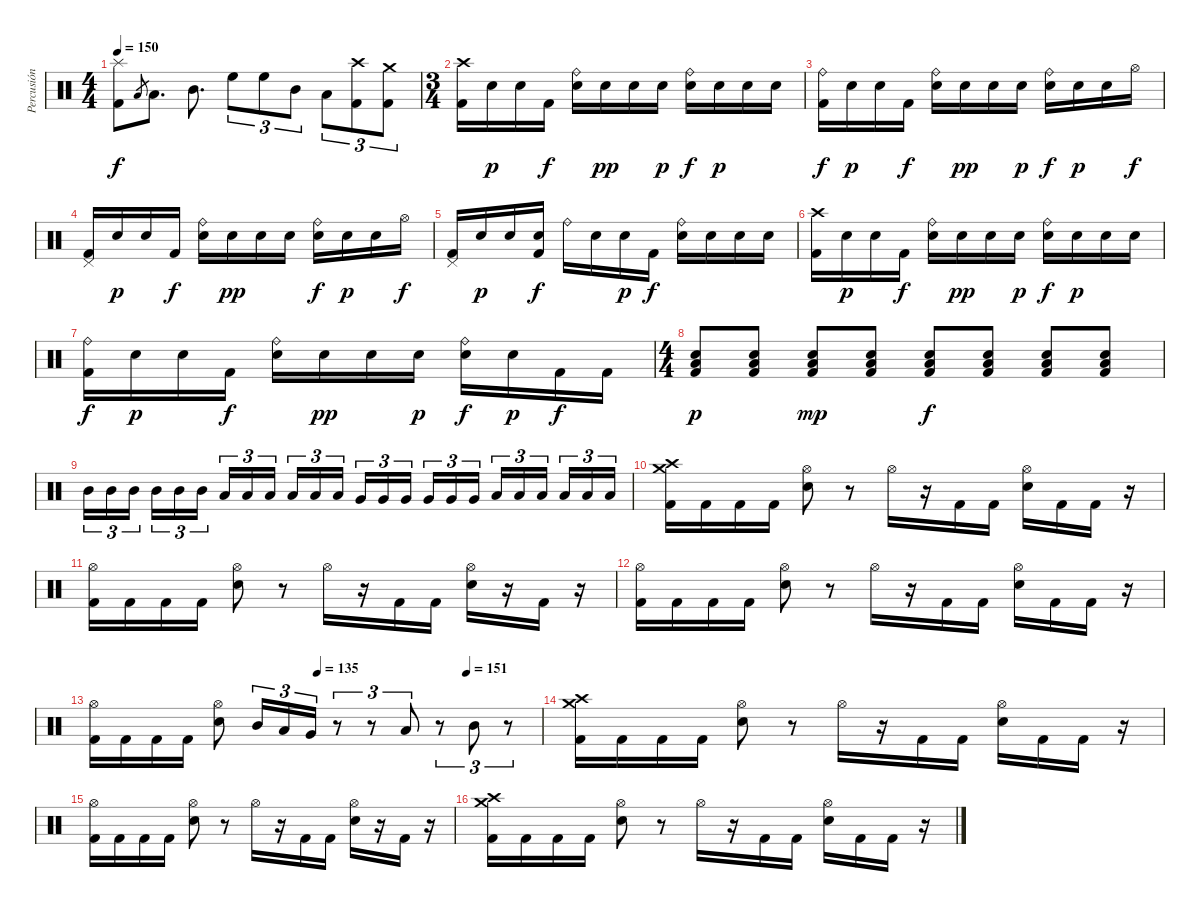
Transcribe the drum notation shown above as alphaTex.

\track ("Percusión" "Percusión") {instrument percussion}
\staff {score}
\articulation defaults
\ts (4 4)
\tempo 150
\clef neutral
\ks c
("Splash (hit)" "Kick (hit) 2").8{dy f} "Low Tom (hit)".8{gr} "Low Tom (hit)".8{d} "Mid Tom (hit)".8{d} "High Floor Tom (hit)".8{tu (3 2)} "High Floor Tom (hit)".8{tu (3 2)} "Mid Tom (hit)".8{tu (3 2)} "Low Tom (hit)".8{tu (3 2)} ("Crash high (hit)" "Kick (hit) 2").8{tu (3 2)} ("Crash medium (hit)" "Kick (hit) 2").8{tu (3 2)} |
\ts (3 4)
("Crash high (hit)" "Kick (hit) 2").16 "Electric Snare (hit)".16{dy p} "Electric Snare (hit)".16 "Kick (hit) 2".16{dy f} ("Ride (bell)" "Electric Snare (hit)").16 "Electric Snare (hit)".16{dy pp} "Electric Snare (hit)".16 "Electric Snare (hit)".16{dy p} ("Ride (bell)" "Electric Snare (hit)").16{dy f} "Electric Snare (hit)".16{dy p} "Electric Snare (hit)".16 "Electric Snare (hit)".16 |
("Ride (bell)" "Kick (hit) 2").16{dy f} "Electric Snare (hit)".16{dy p} "Electric Snare (hit)".16 "Kick (hit) 2".16{dy f} ("Ride (bell)" "Electric Snare (hit)").16 "Electric Snare (hit)".16{dy pp} "Electric Snare (hit)".16 "Electric Snare (hit)".16{dy p} ("Ride (bell)" "Electric Snare (hit)").16{dy f} "Electric Snare (hit)".16{dy p} "Electric Snare (hit)".16 "Hi-Hat (open)".16{dy f} |
("Pedal Hi-Hat (hit)" "Kick (hit) 2").16 "Electric Snare (hit)".16{dy p} "Electric Snare (hit)".16 "Kick (hit) 2".16{dy f} ("Ride (bell)" "Electric Snare (hit)").16 "Electric Snare (hit)".16{dy pp} "Electric Snare (hit)".16 "Electric Snare (hit)".16 ("Ride (bell)" "Electric Snare (hit)").16{dy f} "Electric Snare (hit)".16{dy p} "Electric Snare (hit)".16 "Hi-Hat (open)".16{dy f} |
("Pedal Hi-Hat (hit)" "Kick (hit) 2").16 "Electric Snare (hit)".16{dy p} "Electric Snare (hit)".16 ("Electric Snare (hit)" "Kick (hit) 2").16{dy f} "Ride (bell)".16 "Electric Snare (hit)".16 "Electric Snare (hit)".16{dy p} "Kick (hit) 2".16{dy f} ("Ride (bell)" "Electric Snare (hit)").16 "Electric Snare (hit)".16 "Electric Snare (hit)".16 "Electric Snare (hit)".16 |
("Crash high (hit)" "Kick (hit) 2").16 "Electric Snare (hit)".16{dy p} "Electric Snare (hit)".16 "Kick (hit) 2".16{dy f} ("Ride (bell)" "Electric Snare (hit)").16 "Electric Snare (hit)".16{dy pp} "Electric Snare (hit)".16 "Electric Snare (hit)".16{dy p} ("Ride (bell)" "Electric Snare (hit)").16{dy f} "Electric Snare (hit)".16{dy p} "Electric Snare (hit)".16 "Electric Snare (hit)".16 |
("Ride (bell)" "Kick (hit) 2").16{dy f} "Electric Snare (hit)".16{dy p} "Electric Snare (hit)".16 "Kick (hit) 2".16{dy f} ("Ride (bell)" "Electric Snare (hit)").16 "Electric Snare (hit)".16{dy pp} "Electric Snare (hit)".16 "Electric Snare (hit)".16{dy p} ("Ride (bell)" "Electric Snare (hit)").16{dy f} "Electric Snare (hit)".16{dy p} "Kick (hit) 2".16{dy f} "Kick (hit) 2".16 |
\ts (4 4)
("Electric Snare (hit)" "Low Tom (hit)" "Kick (hit) 2").8{dy p} ("Electric Snare (hit)" "Low Tom (hit)" "Kick (hit) 2").8 ("Electric Snare (hit)" "Low Tom (hit)" "Kick (hit) 2").8{dy mp} ("Electric Snare (hit)" "Low Tom (hit)" "Kick (hit) 2").8 ("Electric Snare (hit)" "Low Tom (hit)" "Kick (hit) 2").8{dy f} ("Electric Snare (hit)" "Low Tom (hit)" "Kick (hit) 2").8 ("Electric Snare (hit)" "Low Tom (hit)" "Kick (hit) 2").8 ("Electric Snare (hit)" "Low Tom (hit)" "Kick (hit) 2").8 |
"Mid Tom (hit)".16{tu (3 2)} "Mid Tom (hit)".16{tu (3 2)} "Mid Tom (hit)".16{tu (3 2) beam splitsecondary} "Mid Tom (hit)".16{tu (3 2)} "Mid Tom (hit)".16{tu (3 2)} "Mid Tom (hit)".16{tu (3 2)} "Low Tom (hit)".16{tu (3 2)} "Low Tom (hit)".16{tu (3 2)} "Low Tom (hit)".16{tu (3 2) beam splitsecondary} "Low Tom (hit)".16{tu (3 2)} "Low Tom (hit)".16{tu (3 2)} "Low Tom (hit)".16{tu (3 2)} "Very Low Tom (hit)".16{tu (3 2)} "Very Low Tom (hit)".16{tu (3 2)} "Very Low Tom (hit)".16{tu (3 2) beam splitsecondary} "Very Low Tom (hit)".16{tu (3 2)} "Very Low Tom (hit)".16{tu (3 2)} "Very Low Tom (hit)".16{tu (3 2)} "Low Floor Tom (hit)".16{tu (3 2)} "Low Floor Tom (hit)".16{tu (3 2)} "Low Floor Tom (hit)".16{tu (3 2) beam splitsecondary} "Low Floor Tom (hit)".16{tu (3 2)} "Low Floor Tom (hit)".16{tu (3 2)} "Low Floor Tom (hit)".16{tu (3 2)} |
("Crash high (hit)" "Crash medium (hit)" "Kick (hit) 2").16 "Kick (hit) 2".16 "Kick (hit) 2".16 "Kick (hit) 2".16 ("Hi-Hat (open)" "Electric Snare (hit)").8 r.8 "Hi-Hat (open)".16 r.16 "Kick (hit) 2".16 "Kick (hit) 2".16 ("Hi-Hat (open)" "Electric Snare (hit)").16 "Kick (hit) 2".16 "Kick (hit) 2".16 r.16 |
("Hi-Hat (open)" "Kick (hit) 2").16 "Kick (hit) 2".16 "Kick (hit) 2".16 "Kick (hit) 2".16 ("Hi-Hat (open)" "Electric Snare (hit)").8 r.8 "Hi-Hat (open)".16 r.16 "Kick (hit) 2".16 "Kick (hit) 2".16 ("Hi-Hat (open)" "Electric Snare (hit)").16 r.16 "Kick (hit) 2".16 r.16 |
("Hi-Hat (open)" "Kick (hit) 2").16 "Kick (hit) 2".16 "Kick (hit) 2".16 "Kick (hit) 2".16 ("Hi-Hat (open)" "Electric Snare (hit)").8 r.8 "Hi-Hat (open)".16 r.16 "Kick (hit) 2".16 "Kick (hit) 2".16 ("Hi-Hat (open)" "Electric Snare (hit)").16 "Kick (hit) 2".16 "Kick (hit) 2".16 r.16 |
\tempo (135 0.5)
\tempo (151 0.8333333333333334)
("Hi-Hat (open)" "Kick (hit) 2").16 "Kick (hit) 2".16 "Kick (hit) 2".16 "Kick (hit) 2".16 ("Hi-Hat (open)" "Electric Snare (hit)").8 "Mid Tom (hit)".16{tu (3 2)} "Low Tom (hit)".16{tu (3 2)} "Very Low Tom (hit)".16{tu (3 2)} r.8{tu (3 2)} r.8{tu (3 2)} "Low Tom (hit)".8{tu (3 2)} r.8{tu (3 2)} "Mid Tom (hit)".8{tu (3 2)} r.8{tu (3 2)} |
("Crash high (hit)" "Crash medium (hit)" "Kick (hit) 2").16 "Kick (hit) 2".16 "Kick (hit) 2".16 "Kick (hit) 2".16 ("Hi-Hat (open)" "Electric Snare (hit)").8 r.8 "Hi-Hat (open)".16 r.16 "Kick (hit) 2".16 "Kick (hit) 2".16 ("Hi-Hat (open)" "Electric Snare (hit)").16 "Kick (hit) 2".16 "Kick (hit) 2".16 r.16 |
("Hi-Hat (open)" "Kick (hit) 2").16 "Kick (hit) 2".16 "Kick (hit) 2".16 "Kick (hit) 2".16 ("Hi-Hat (open)" "Electric Snare (hit)").8 r.8 "Hi-Hat (open)".16 r.16 "Kick (hit) 2".16 "Kick (hit) 2".16 ("Hi-Hat (open)" "Electric Snare (hit)").16 r.16 "Kick (hit) 2".16 r.16 |
("Crash high (hit)" "Crash medium (hit)" "Kick (hit) 2").16 "Kick (hit) 2".16 "Kick (hit) 2".16 "Kick (hit) 2".16 ("Hi-Hat (open)" "Electric Snare (hit)").8 r.8 "Hi-Hat (open)".16 r.16 "Kick (hit) 2".16 "Kick (hit) 2".16 ("Hi-Hat (open)" "Electric Snare (hit)").16 "Kick (hit) 2".16 "Kick (hit) 2".16 r.16
